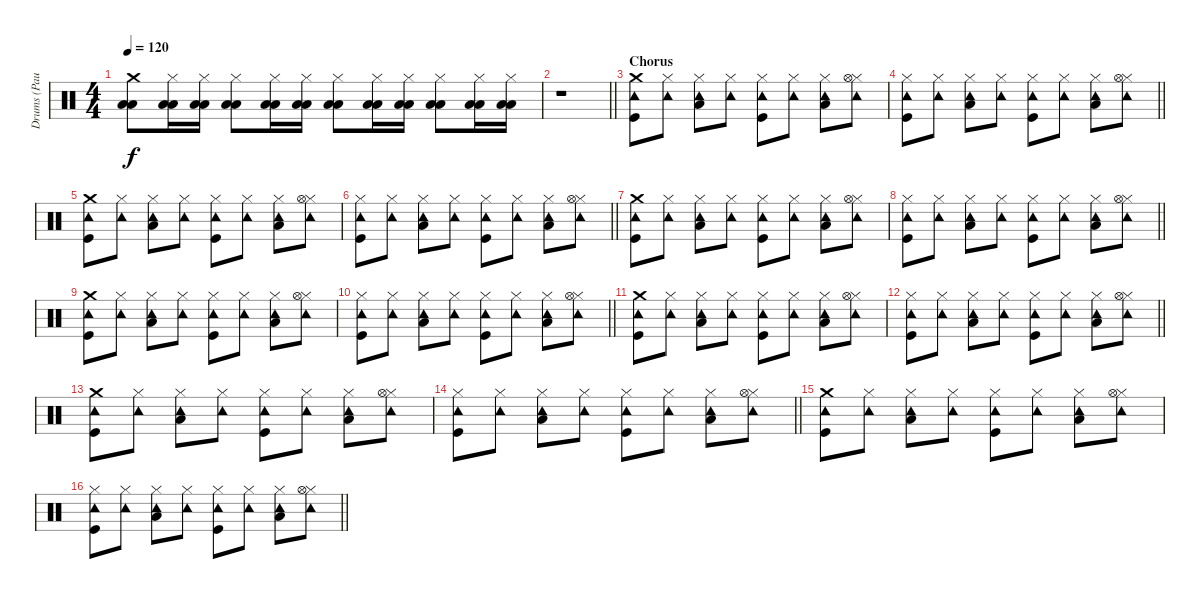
\track ("Drums (Paul Thomson)" "Drums (Pau") {instrument percussion}
\staff
\articulation defaults
\ts (4 4)
\tempo 120
\clef neutral
\ks c
("Crash medium (hit)" "Low Floor Tom (hit)" "Low Tom (hit)").8{dy f} ("Hi-Hat (closed)" "Low Floor Tom (hit)" "Low Tom (hit)").16 ("Hi-Hat (closed)" "Low Floor Tom (hit)" "Low Tom (hit)").16 ("Hi-Hat (closed)" "Low Floor Tom (hit)" "Low Tom (hit)").8 ("Hi-Hat (closed)" "Low Floor Tom (hit)" "Low Tom (hit)").16 ("Hi-Hat (closed)" "Low Floor Tom (hit)" "Low Tom (hit)").16 ("Hi-Hat (closed)" "Low Floor Tom (hit)" "Low Tom (hit)").8 ("Hi-Hat (closed)" "Low Floor Tom (hit)" "Low Tom (hit)").16 ("Hi-Hat (closed)" "Low Floor Tom (hit)" "Low Tom (hit)").16 ("Hi-Hat (closed)" "Low Floor Tom (hit)" "Low Tom (hit)").8 ("Hi-Hat (closed)" "Low Floor Tom (hit)" "Low Tom (hit)").16 ("Hi-Hat (closed)" "Low Floor Tom (hit)" "Low Tom (hit)").16 |
\barLineRight lightlight
r.1 |
\section ("" "Chorus")
("Crash medium (hit)" "Kick (hit)" "Tambourine (hit)").8 ("Hi-Hat (closed)" "Tambourine (hit)").8 ("Hi-Hat (closed)" "Low Floor Tom (hit)" "Tambourine (hit)").8 ("Hi-Hat (closed)" "Tambourine (hit)").8 ("Hi-Hat (closed)" "Kick (hit)" "Tambourine (hit)").8 ("Hi-Hat (closed)" "Tambourine (hit)").8 ("Hi-Hat (closed)" "Low Floor Tom (hit)" "Tambourine (hit)").8 ("Hi-Hat (closed)" "Hi-Hat (open)" "Tambourine (hit)").8 |
\barLineRight lightlight
("Hi-Hat (closed)" "Kick (hit)" "Tambourine (hit)").8 ("Hi-Hat (closed)" "Tambourine (hit)").8 ("Hi-Hat (closed)" "Low Floor Tom (hit)" "Tambourine (hit)").8 ("Hi-Hat (closed)" "Tambourine (hit)").8 ("Hi-Hat (closed)" "Kick (hit)" "Tambourine (hit)").8 ("Hi-Hat (closed)" "Tambourine (hit)").8 ("Hi-Hat (closed)" "Low Floor Tom (hit)" "Tambourine (hit)").8 ("Hi-Hat (closed)" "Hi-Hat (open)" "Tambourine (hit)").8 |
("Crash medium (hit)" "Kick (hit)" "Tambourine (hit)").8 ("Hi-Hat (closed)" "Tambourine (hit)").8 ("Hi-Hat (closed)" "Low Floor Tom (hit)" "Tambourine (hit)").8 ("Hi-Hat (closed)" "Tambourine (hit)").8 ("Hi-Hat (closed)" "Kick (hit)" "Tambourine (hit)").8 ("Hi-Hat (closed)" "Tambourine (hit)").8 ("Hi-Hat (closed)" "Low Floor Tom (hit)" "Tambourine (hit)").8 ("Hi-Hat (closed)" "Hi-Hat (open)" "Tambourine (hit)").8 |
\barLineRight lightlight
("Hi-Hat (closed)" "Kick (hit)" "Tambourine (hit)").8 ("Hi-Hat (closed)" "Tambourine (hit)").8 ("Hi-Hat (closed)" "Low Floor Tom (hit)" "Tambourine (hit)").8 ("Hi-Hat (closed)" "Tambourine (hit)").8 ("Hi-Hat (closed)" "Kick (hit)" "Tambourine (hit)").8 ("Hi-Hat (closed)" "Tambourine (hit)").8 ("Hi-Hat (closed)" "Low Floor Tom (hit)" "Tambourine (hit)").8 ("Hi-Hat (closed)" "Hi-Hat (open)" "Tambourine (hit)").8 |
("Crash medium (hit)" "Kick (hit)" "Tambourine (hit)").8 ("Hi-Hat (closed)" "Tambourine (hit)").8 ("Hi-Hat (closed)" "Low Floor Tom (hit)" "Tambourine (hit)").8 ("Hi-Hat (closed)" "Tambourine (hit)").8 ("Hi-Hat (closed)" "Kick (hit)" "Tambourine (hit)").8 ("Hi-Hat (closed)" "Tambourine (hit)").8 ("Hi-Hat (closed)" "Low Floor Tom (hit)" "Tambourine (hit)").8 ("Hi-Hat (closed)" "Hi-Hat (open)" "Tambourine (hit)").8 |
\barLineRight lightlight
("Hi-Hat (closed)" "Kick (hit)" "Tambourine (hit)").8 ("Hi-Hat (closed)" "Tambourine (hit)").8 ("Hi-Hat (closed)" "Low Floor Tom (hit)" "Tambourine (hit)").8 ("Hi-Hat (closed)" "Tambourine (hit)").8 ("Hi-Hat (closed)" "Kick (hit)" "Tambourine (hit)").8 ("Hi-Hat (closed)" "Tambourine (hit)").8 ("Hi-Hat (closed)" "Low Floor Tom (hit)" "Tambourine (hit)").8 ("Hi-Hat (closed)" "Hi-Hat (open)" "Tambourine (hit)").8 |
("Crash medium (hit)" "Kick (hit)" "Tambourine (hit)").8 ("Hi-Hat (closed)" "Tambourine (hit)").8 ("Hi-Hat (closed)" "Low Floor Tom (hit)" "Tambourine (hit)").8 ("Hi-Hat (closed)" "Tambourine (hit)").8 ("Hi-Hat (closed)" "Kick (hit)" "Tambourine (hit)").8 ("Hi-Hat (closed)" "Tambourine (hit)").8 ("Hi-Hat (closed)" "Low Floor Tom (hit)" "Tambourine (hit)").8 ("Hi-Hat (closed)" "Hi-Hat (open)" "Tambourine (hit)").8 |
\barLineRight lightlight
("Hi-Hat (closed)" "Kick (hit)" "Tambourine (hit)").8 ("Hi-Hat (closed)" "Tambourine (hit)").8 ("Hi-Hat (closed)" "Low Floor Tom (hit)" "Tambourine (hit)").8 ("Hi-Hat (closed)" "Tambourine (hit)").8 ("Hi-Hat (closed)" "Kick (hit)" "Tambourine (hit)").8 ("Hi-Hat (closed)" "Tambourine (hit)").8 ("Hi-Hat (closed)" "Low Floor Tom (hit)" "Tambourine (hit)").8 ("Hi-Hat (closed)" "Hi-Hat (open)" "Tambourine (hit)").8 |
("Crash medium (hit)" "Kick (hit)" "Tambourine (hit)").8 ("Hi-Hat (closed)" "Tambourine (hit)").8 ("Hi-Hat (closed)" "Low Floor Tom (hit)" "Tambourine (hit)").8 ("Hi-Hat (closed)" "Tambourine (hit)").8 ("Hi-Hat (closed)" "Kick (hit)" "Tambourine (hit)").8 ("Hi-Hat (closed)" "Tambourine (hit)").8 ("Hi-Hat (closed)" "Low Floor Tom (hit)" "Tambourine (hit)").8 ("Hi-Hat (closed)" "Hi-Hat (open)" "Tambourine (hit)").8 |
\barLineRight lightlight
("Hi-Hat (closed)" "Kick (hit)" "Tambourine (hit)").8 ("Hi-Hat (closed)" "Tambourine (hit)").8 ("Hi-Hat (closed)" "Low Floor Tom (hit)" "Tambourine (hit)").8 ("Hi-Hat (closed)" "Tambourine (hit)").8 ("Hi-Hat (closed)" "Kick (hit)" "Tambourine (hit)").8 ("Hi-Hat (closed)" "Tambourine (hit)").8 ("Hi-Hat (closed)" "Low Floor Tom (hit)" "Tambourine (hit)").8 ("Hi-Hat (closed)" "Hi-Hat (open)" "Tambourine (hit)").8 |
("Crash medium (hit)" "Kick (hit)" "Tambourine (hit)").8 ("Hi-Hat (closed)" "Tambourine (hit)").8 ("Hi-Hat (closed)" "Low Floor Tom (hit)" "Tambourine (hit)").8 ("Hi-Hat (closed)" "Tambourine (hit)").8 ("Hi-Hat (closed)" "Kick (hit)" "Tambourine (hit)").8 ("Hi-Hat (closed)" "Tambourine (hit)").8 ("Hi-Hat (closed)" "Low Floor Tom (hit)" "Tambourine (hit)").8 ("Hi-Hat (closed)" "Hi-Hat (open)" "Tambourine (hit)").8 |
\barLineRight lightlight
("Hi-Hat (closed)" "Kick (hit)" "Tambourine (hit)").8 ("Hi-Hat (closed)" "Tambourine (hit)").8 ("Hi-Hat (closed)" "Low Floor Tom (hit)" "Tambourine (hit)").8 ("Hi-Hat (closed)" "Tambourine (hit)").8 ("Hi-Hat (closed)" "Kick (hit)" "Tambourine (hit)").8 ("Hi-Hat (closed)" "Tambourine (hit)").8 ("Hi-Hat (closed)" "Low Floor Tom (hit)" "Tambourine (hit)").8 ("Hi-Hat (closed)" "Hi-Hat (open)" "Tambourine (hit)").8 |
("Crash medium (hit)" "Kick (hit)" "Tambourine (hit)").8 ("Hi-Hat (closed)" "Tambourine (hit)").8 ("Hi-Hat (closed)" "Low Floor Tom (hit)" "Tambourine (hit)").8 ("Hi-Hat (closed)" "Tambourine (hit)").8 ("Hi-Hat (closed)" "Kick (hit)" "Tambourine (hit)").8 ("Hi-Hat (closed)" "Tambourine (hit)").8 ("Hi-Hat (closed)" "Low Floor Tom (hit)" "Tambourine (hit)").8 ("Hi-Hat (closed)" "Hi-Hat (open)" "Tambourine (hit)").8 |
\barLineRight lightlight
("Hi-Hat (closed)" "Kick (hit)" "Tambourine (hit)").8 ("Hi-Hat (closed)" "Tambourine (hit)").8 ("Hi-Hat (closed)" "Low Floor Tom (hit)" "Tambourine (hit)").8 ("Hi-Hat (closed)" "Tambourine (hit)").8 ("Hi-Hat (closed)" "Kick (hit)" "Tambourine (hit)").8 ("Hi-Hat (closed)" "Tambourine (hit)").8 ("Hi-Hat (closed)" "Low Floor Tom (hit)" "Tambourine (hit)").8 ("Hi-Hat (closed)" "Hi-Hat (open)" "Tambourine (hit)").8
